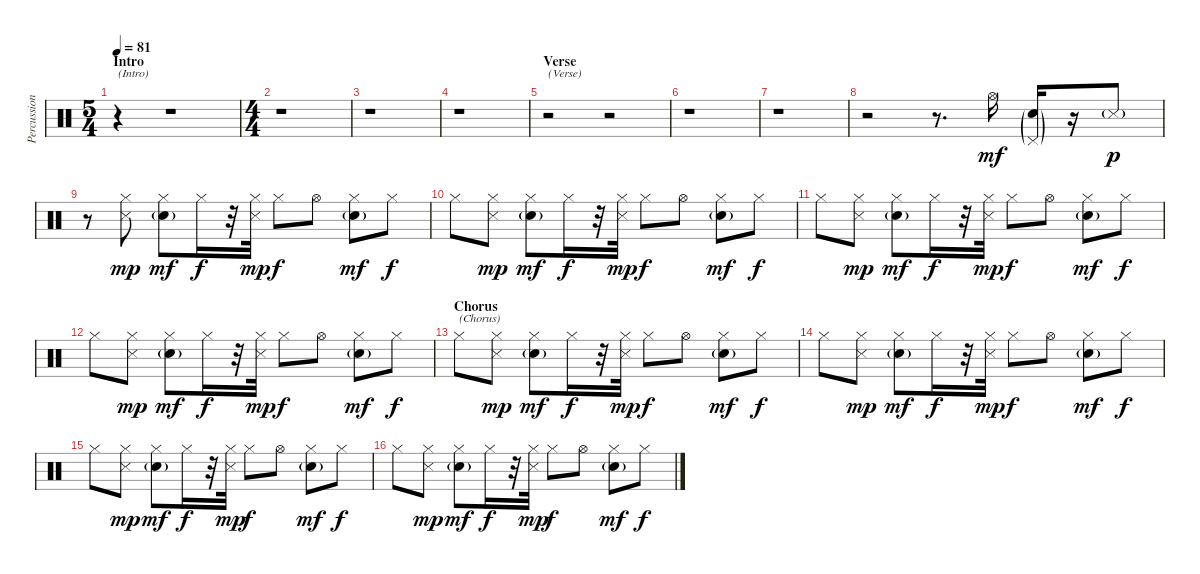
\track ("Percussion" "Percussion") {instrument percussion}
\staff {score}
\articulation defaults
\ts (5 4)
\section ("" "Intro")
\tempo 81
\clef neutral
\ks c
r.4{txt "(Intro)" dy mf} r.1 |
\ts (4 4)
r.1 |
r.1 |
r.1 |
\section ("" "Verse")
r.2{txt "(Verse)"} r.2 |
r.1 |
r.1 |
r.2 r.8{d} "Hi-Hat (open)".16 ("Pedal Hi-Hat (hit)"{g} "Snare (hit) 2"{g}).16 r.16 "Snare (side stick) 3"{g}.8{dy p} |
r.8 ("Hi-Hat (closed)" "Snare (side stick) 3").8{dy mp} ("Hi-Hat (closed)" "Snare (hit) 2"{g}).8{dy mf} "Hi-Hat (closed)".16{dy f} r.32 ("Hi-Hat (closed)" "Snare (side stick) 3").32{dy mp} "Hi-Hat (closed)".8{dy f} "Hi-Hat (open)".8 ("Hi-Hat (closed)" "Snare (hit) 2"{g}).8{dy mf} "Hi-Hat (closed)".8{dy f} |
"Hi-Hat (closed)".8 ("Hi-Hat (closed)" "Snare (side stick) 3").8{dy mp} ("Hi-Hat (closed)" "Snare (hit) 2"{g}).8{dy mf} "Hi-Hat (closed)".16{dy f} r.32 ("Hi-Hat (closed)" "Snare (side stick) 3").32{dy mp} "Hi-Hat (closed)".8{dy f} "Hi-Hat (open)".8 ("Hi-Hat (closed)" "Snare (hit) 2"{g}).8{dy mf} "Hi-Hat (closed)".8{dy f} |
"Hi-Hat (closed)".8 ("Hi-Hat (closed)" "Snare (side stick) 3").8{dy mp} ("Hi-Hat (closed)" "Snare (hit) 2"{g}).8{dy mf} "Hi-Hat (closed)".16{dy f} r.32 ("Hi-Hat (closed)" "Snare (side stick) 3").32{dy mp} "Hi-Hat (closed)".8{dy f} "Hi-Hat (open)".8 ("Hi-Hat (closed)" "Snare (hit) 2"{g}).8{dy mf} "Hi-Hat (closed)".8{dy f} |
"Hi-Hat (closed)".8 ("Hi-Hat (closed)" "Snare (side stick) 3").8{dy mp} ("Hi-Hat (closed)" "Snare (hit) 2"{g}).8{dy mf} "Hi-Hat (closed)".16{dy f} r.32 ("Hi-Hat (closed)" "Snare (side stick) 3").32{dy mp} "Hi-Hat (closed)".8{dy f} "Hi-Hat (open)".8 ("Hi-Hat (closed)" "Snare (hit) 2"{g}).8{dy mf} "Hi-Hat (closed)".8{dy f} |
\section ("" "Chorus")
"Hi-Hat (closed)".8{txt "(Chorus)"} ("Hi-Hat (closed)" "Snare (side stick) 3").8{dy mp} ("Hi-Hat (closed)" "Snare (hit) 2"{g}).8{dy mf} "Hi-Hat (closed)".16{dy f} r.32 ("Hi-Hat (closed)" "Snare (side stick) 3").32{dy mp} "Hi-Hat (closed)".8{dy f} "Hi-Hat (open)".8 ("Hi-Hat (closed)" "Snare (hit) 2"{g}).8{dy mf} "Hi-Hat (closed)".8{dy f} |
"Hi-Hat (closed)".8 ("Hi-Hat (closed)" "Snare (side stick) 3").8{dy mp} ("Hi-Hat (closed)" "Snare (hit) 2"{g}).8{dy mf} "Hi-Hat (closed)".16{dy f} r.32 ("Hi-Hat (closed)" "Snare (side stick) 3").32{dy mp} "Hi-Hat (closed)".8{dy f} "Hi-Hat (open)".8 ("Hi-Hat (closed)" "Snare (hit) 2"{g}).8{dy mf} "Hi-Hat (closed)".8{dy f} |
"Hi-Hat (closed)".8 ("Hi-Hat (closed)" "Snare (side stick) 3").8{dy mp} ("Hi-Hat (closed)" "Snare (hit) 2"{g}).8{dy mf} "Hi-Hat (closed)".16{dy f} r.32 ("Hi-Hat (closed)" "Snare (side stick) 3").32{dy mp} "Hi-Hat (closed)".8{dy f} "Hi-Hat (open)".8 ("Hi-Hat (closed)" "Snare (hit) 2"{g}).8{dy mf} "Hi-Hat (closed)".8{dy f} |
"Hi-Hat (closed)".8 ("Hi-Hat (closed)" "Snare (side stick) 3").8{dy mp} ("Hi-Hat (closed)" "Snare (hit) 2"{g}).8{dy mf} "Hi-Hat (closed)".16{dy f} r.32 ("Hi-Hat (closed)" "Snare (side stick) 3").32{dy mp} "Hi-Hat (closed)".8{dy f} "Hi-Hat (open)".8 ("Hi-Hat (closed)" "Snare (hit) 2"{g}).8{dy mf} "Hi-Hat (closed)".8{dy f}
